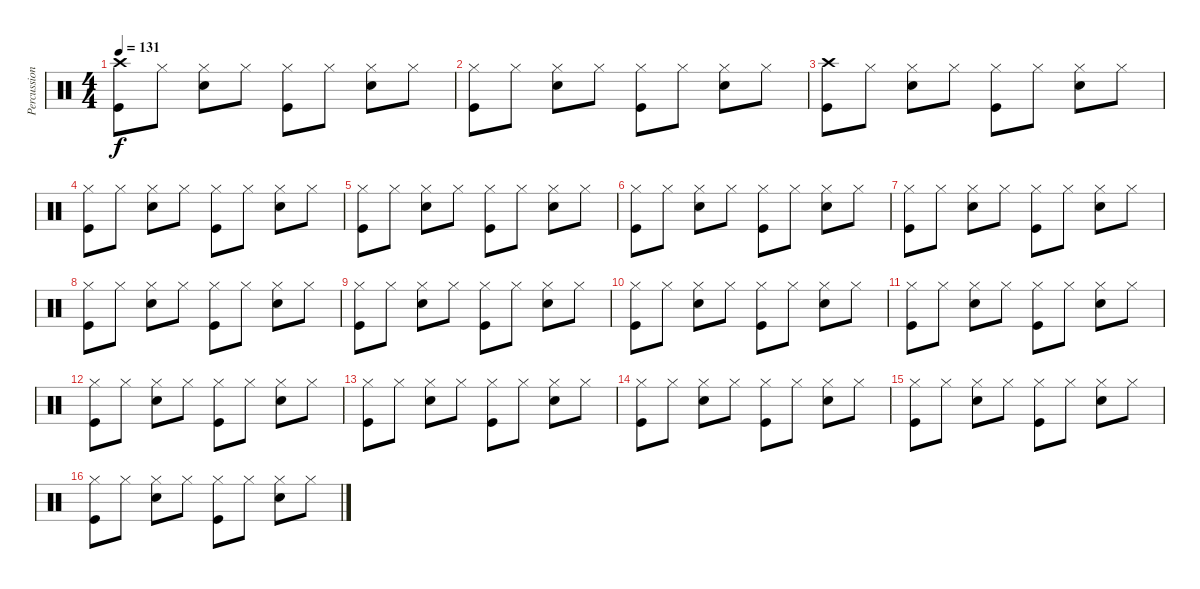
\track ("Percussion" "Percussion") {instrument percussion}
\staff {score}
\articulation defaults
\ts (4 4)
\tempo 131
\clef neutral
\ks c
("Crash high (hit)" "Kick (hit)").8{dy f} "Hi-Hat (closed)".8 ("Hi-Hat (closed)" "Snare (hit) 2").8 "Hi-Hat (closed)".8 ("Hi-Hat (closed)" "Kick (hit)").8 "Hi-Hat (closed)".8 ("Hi-Hat (closed)" "Snare (hit) 2").8 "Hi-Hat (closed)".8 |
("Hi-Hat (closed)" "Kick (hit)").8 "Hi-Hat (closed)".8 ("Hi-Hat (closed)" "Snare (hit) 2").8 "Hi-Hat (closed)".8 ("Hi-Hat (closed)" "Kick (hit)").8 "Hi-Hat (closed)".8 ("Hi-Hat (closed)" "Snare (hit) 2").8 "Hi-Hat (closed)".8 |
("Crash high (hit)" "Kick (hit)").8 "Hi-Hat (closed)".8 ("Hi-Hat (closed)" "Snare (hit) 2").8 "Hi-Hat (closed)".8 ("Hi-Hat (closed)" "Kick (hit)").8 "Hi-Hat (closed)".8 ("Hi-Hat (closed)" "Snare (hit) 2").8 "Hi-Hat (closed)".8 |
("Hi-Hat (closed)" "Kick (hit)").8 "Hi-Hat (closed)".8 ("Hi-Hat (closed)" "Snare (hit) 2").8 "Hi-Hat (closed)".8 ("Hi-Hat (closed)" "Kick (hit)").8 "Hi-Hat (closed)".8 ("Hi-Hat (closed)" "Snare (hit) 2").8 "Hi-Hat (closed)".8 |
("Hi-Hat (closed)" "Kick (hit)").8 "Hi-Hat (closed)".8 ("Hi-Hat (closed)" "Snare (hit) 2").8 "Hi-Hat (closed)".8 ("Hi-Hat (closed)" "Kick (hit)").8 "Hi-Hat (closed)".8 ("Hi-Hat (closed)" "Snare (hit) 2").8 "Hi-Hat (closed)".8 |
("Hi-Hat (closed)" "Kick (hit)").8 "Hi-Hat (closed)".8 ("Hi-Hat (closed)" "Snare (hit) 2").8 "Hi-Hat (closed)".8 ("Hi-Hat (closed)" "Kick (hit)").8 "Hi-Hat (closed)".8 ("Hi-Hat (closed)" "Snare (hit) 2").8 "Hi-Hat (closed)".8 |
("Hi-Hat (closed)" "Kick (hit)").8 "Hi-Hat (closed)".8 ("Hi-Hat (closed)" "Snare (hit) 2").8 "Hi-Hat (closed)".8 ("Hi-Hat (closed)" "Kick (hit)").8 "Hi-Hat (closed)".8 ("Hi-Hat (closed)" "Snare (hit) 2").8 "Hi-Hat (closed)".8 |
("Hi-Hat (closed)" "Kick (hit)").8 "Hi-Hat (closed)".8 ("Hi-Hat (closed)" "Snare (hit) 2").8 "Hi-Hat (closed)".8 ("Hi-Hat (closed)" "Kick (hit)").8 "Hi-Hat (closed)".8 ("Hi-Hat (closed)" "Snare (hit) 2").8 "Hi-Hat (closed)".8 |
("Hi-Hat (closed)" "Kick (hit)").8 "Hi-Hat (closed)".8 ("Hi-Hat (closed)" "Snare (hit) 2").8 "Hi-Hat (closed)".8 ("Hi-Hat (closed)" "Kick (hit)").8 "Hi-Hat (closed)".8 ("Hi-Hat (closed)" "Snare (hit) 2").8 "Hi-Hat (closed)".8 |
("Hi-Hat (closed)" "Kick (hit)").8 "Hi-Hat (closed)".8 ("Hi-Hat (closed)" "Snare (hit) 2").8 "Hi-Hat (closed)".8 ("Hi-Hat (closed)" "Kick (hit)").8 "Hi-Hat (closed)".8 ("Hi-Hat (closed)" "Snare (hit) 2").8 "Hi-Hat (closed)".8 |
("Hi-Hat (closed)" "Kick (hit)").8 "Hi-Hat (closed)".8 ("Hi-Hat (closed)" "Snare (hit) 2").8 "Hi-Hat (closed)".8 ("Hi-Hat (closed)" "Kick (hit)").8 "Hi-Hat (closed)".8 ("Hi-Hat (closed)" "Snare (hit) 2").8 "Hi-Hat (closed)".8 |
("Hi-Hat (closed)" "Kick (hit)").8 "Hi-Hat (closed)".8 ("Hi-Hat (closed)" "Snare (hit) 2").8 "Hi-Hat (closed)".8 ("Hi-Hat (closed)" "Kick (hit)").8 "Hi-Hat (closed)".8 ("Hi-Hat (closed)" "Snare (hit) 2").8 "Hi-Hat (closed)".8 |
("Hi-Hat (closed)" "Kick (hit)").8 "Hi-Hat (closed)".8 ("Hi-Hat (closed)" "Snare (hit) 2").8 "Hi-Hat (closed)".8 ("Hi-Hat (closed)" "Kick (hit)").8 "Hi-Hat (closed)".8 ("Hi-Hat (closed)" "Snare (hit) 2").8 "Hi-Hat (closed)".8 |
("Hi-Hat (closed)" "Kick (hit)").8 "Hi-Hat (closed)".8 ("Hi-Hat (closed)" "Snare (hit) 2").8 "Hi-Hat (closed)".8 ("Hi-Hat (closed)" "Kick (hit)").8 "Hi-Hat (closed)".8 ("Hi-Hat (closed)" "Snare (hit) 2").8 "Hi-Hat (closed)".8 |
("Hi-Hat (closed)" "Kick (hit)").8 "Hi-Hat (closed)".8 ("Hi-Hat (closed)" "Snare (hit) 2").8 "Hi-Hat (closed)".8 ("Hi-Hat (closed)" "Kick (hit)").8 "Hi-Hat (closed)".8 ("Hi-Hat (closed)" "Snare (hit) 2").8 "Hi-Hat (closed)".8 |
("Hi-Hat (closed)" "Kick (hit)").8 "Hi-Hat (closed)".8 ("Hi-Hat (closed)" "Snare (hit) 2").8 "Hi-Hat (closed)".8 ("Hi-Hat (closed)" "Kick (hit)").8 "Hi-Hat (closed)".8 ("Hi-Hat (closed)" "Snare (hit) 2").8 "Hi-Hat (closed)".8
